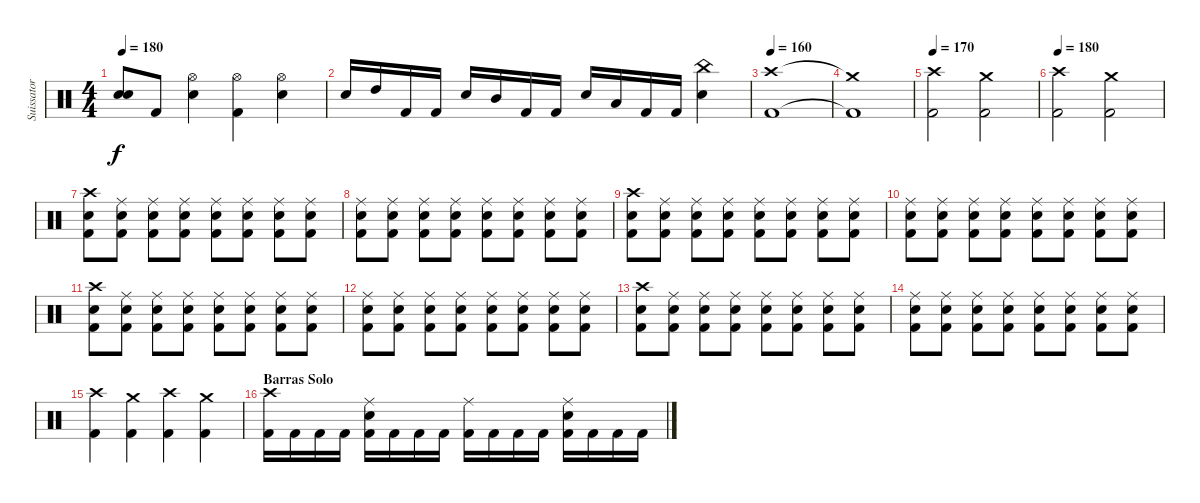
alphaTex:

\track ("Suissator" "Suissator") {instrument percussion}
\staff {score}
\articulation defaults
\ts (4 4)
\tempo 180
\clef neutral
\ks c
("Snare (hit)"{t} "Snare (hit)"{t}).8{dy f} "Kick (hit) 2".8 ("Electric Snare (hit)" "Hi-Hat (open)").4 ("Kick (hit) 2" "Hi-Hat (open)").4 ("Electric Snare (hit)" "Hi-Hat (open)").4 |
"Electric Snare (hit)".16 "High Tom (hit)".16 "Kick (hit) 2".16 "Kick (hit) 2".16 "Electric Snare (hit)".16 "Mid Tom (hit)".16 "Kick (hit) 2".16 "Kick (hit) 2".16 "Electric Snare (hit)".16 "Low Tom (hit)".16 "Kick (hit) 2".16 "Kick (hit) 2".16 ("Electric Snare (hit)" "China (hit)").4 |
\tempo 160
("Kick (hit) 2" "Crash high (hit)").1 |
("Kick (hit) 2"{t} "Crash medium (hit)"{t}).1 |
\tempo 170
("Kick (hit) 2" "Crash high (hit)").2 ("Kick (hit) 2" "Crash medium (hit)").2 |
\tempo 180
("Kick (hit) 2" "Crash high (hit)").2 ("Kick (hit) 2" "Crash medium (hit)").2 |
("Kick (hit) 2" "Electric Snare (hit)" "Crash high (hit)").8 ("Kick (hit) 2" "Electric Snare (hit)" "Ride (middle)").8 ("Kick (hit) 2" "Electric Snare (hit)" "Ride (middle)").8 ("Kick (hit) 2" "Electric Snare (hit)" "Ride (middle)").8 ("Kick (hit) 2" "Electric Snare (hit)" "Ride (middle)").8 ("Kick (hit) 2" "Electric Snare (hit)" "Ride (middle)").8 ("Kick (hit) 2" "Electric Snare (hit)" "Ride (middle)").8 ("Kick (hit) 2" "Electric Snare (hit)" "Ride (middle)").8 |
("Kick (hit) 2" "Electric Snare (hit)" "Ride (middle)").8 ("Kick (hit) 2" "Electric Snare (hit)" "Ride (middle)").8 ("Kick (hit) 2" "Electric Snare (hit)" "Ride (middle)").8 ("Kick (hit) 2" "Electric Snare (hit)" "Ride (middle)").8 ("Kick (hit) 2" "Electric Snare (hit)" "Ride (middle)").8 ("Kick (hit) 2" "Electric Snare (hit)" "Ride (middle)").8 ("Kick (hit) 2" "Electric Snare (hit)" "Ride (middle)").8 ("Kick (hit) 2" "Electric Snare (hit)" "Ride (middle)").8 |
("Kick (hit) 2" "Electric Snare (hit)" "Crash high (hit)").8 ("Kick (hit) 2" "Electric Snare (hit)" "Ride (middle)").8 ("Kick (hit) 2" "Electric Snare (hit)" "Ride (middle)").8 ("Kick (hit) 2" "Electric Snare (hit)" "Ride (middle)").8 ("Kick (hit) 2" "Electric Snare (hit)" "Ride (middle)").8 ("Kick (hit) 2" "Electric Snare (hit)" "Ride (middle)").8 ("Kick (hit) 2" "Electric Snare (hit)" "Ride (middle)").8 ("Kick (hit) 2" "Electric Snare (hit)" "Ride (middle)").8 |
("Kick (hit) 2" "Electric Snare (hit)" "Ride (middle)").8 ("Kick (hit) 2" "Electric Snare (hit)" "Ride (middle)").8 ("Kick (hit) 2" "Electric Snare (hit)" "Ride (middle)").8 ("Kick (hit) 2" "Electric Snare (hit)" "Ride (middle)").8 ("Kick (hit) 2" "Electric Snare (hit)" "Ride (middle)").8 ("Kick (hit) 2" "Electric Snare (hit)" "Ride (middle)").8 ("Kick (hit) 2" "Electric Snare (hit)" "Ride (middle)").8 ("Kick (hit) 2" "Electric Snare (hit)" "Ride (middle)").8 |
("Kick (hit) 2" "Electric Snare (hit)" "Crash high (hit)").8 ("Kick (hit) 2" "Electric Snare (hit)" "Ride (middle)").8 ("Kick (hit) 2" "Electric Snare (hit)" "Ride (middle)").8 ("Kick (hit) 2" "Electric Snare (hit)" "Ride (middle)").8 ("Kick (hit) 2" "Electric Snare (hit)" "Ride (middle)").8 ("Kick (hit) 2" "Electric Snare (hit)" "Ride (middle)").8 ("Kick (hit) 2" "Electric Snare (hit)" "Ride (middle)").8 ("Kick (hit) 2" "Electric Snare (hit)" "Ride (middle)").8 |
("Kick (hit) 2" "Electric Snare (hit)" "Ride (middle)").8 ("Kick (hit) 2" "Electric Snare (hit)" "Ride (middle)").8 ("Kick (hit) 2" "Electric Snare (hit)" "Ride (middle)").8 ("Kick (hit) 2" "Electric Snare (hit)" "Ride (middle)").8 ("Kick (hit) 2" "Electric Snare (hit)" "Ride (middle)").8 ("Kick (hit) 2" "Electric Snare (hit)" "Ride (middle)").8 ("Kick (hit) 2" "Electric Snare (hit)" "Ride (middle)").8 ("Kick (hit) 2" "Electric Snare (hit)" "Ride (middle)").8 |
("Kick (hit) 2" "Electric Snare (hit)" "Crash high (hit)").8 ("Kick (hit) 2" "Electric Snare (hit)" "Ride (middle)").8 ("Kick (hit) 2" "Electric Snare (hit)" "Ride (middle)").8 ("Kick (hit) 2" "Electric Snare (hit)" "Ride (middle)").8 ("Kick (hit) 2" "Electric Snare (hit)" "Ride (middle)").8 ("Kick (hit) 2" "Electric Snare (hit)" "Ride (middle)").8 ("Kick (hit) 2" "Electric Snare (hit)" "Ride (middle)").8 ("Kick (hit) 2" "Electric Snare (hit)" "Ride (middle)").8 |
("Kick (hit) 2" "Electric Snare (hit)" "Ride (middle)").8 ("Kick (hit) 2" "Electric Snare (hit)" "Ride (middle)").8 ("Kick (hit) 2" "Electric Snare (hit)" "Ride (middle)").8 ("Kick (hit) 2" "Electric Snare (hit)" "Ride (middle)").8 ("Kick (hit) 2" "Electric Snare (hit)" "Ride (middle)").8 ("Kick (hit) 2" "Electric Snare (hit)" "Ride (middle)").8 ("Kick (hit) 2" "Electric Snare (hit)" "Ride (middle)").8 ("Kick (hit) 2" "Electric Snare (hit)" "Ride (middle)").8 |
("Kick (hit) 2" "Crash high (hit)").4 ("Kick (hit) 2" "Crash medium (hit)").4 ("Kick (hit) 2" "Crash high (hit)").4 ("Kick (hit) 2" "Crash medium (hit)").4 |
\section ("" "Barras Solo")
("Kick (hit) 2" "Crash high (hit)").16 "Kick (hit) 2".16 "Kick (hit) 2".16 "Kick (hit) 2".16 ("Kick (hit) 2" "Electric Snare (hit)" "Ride (middle)").16 "Kick (hit) 2".16 "Kick (hit) 2".16 "Kick (hit) 2".16 ("Kick (hit) 2" "Ride (middle)").16 "Kick (hit) 2".16 "Kick (hit) 2".16 "Kick (hit) 2".16 ("Kick (hit) 2" "Electric Snare (hit)" "Ride (middle)").16 "Kick (hit) 2".16 "Kick (hit) 2".16 "Kick (hit) 2".16
